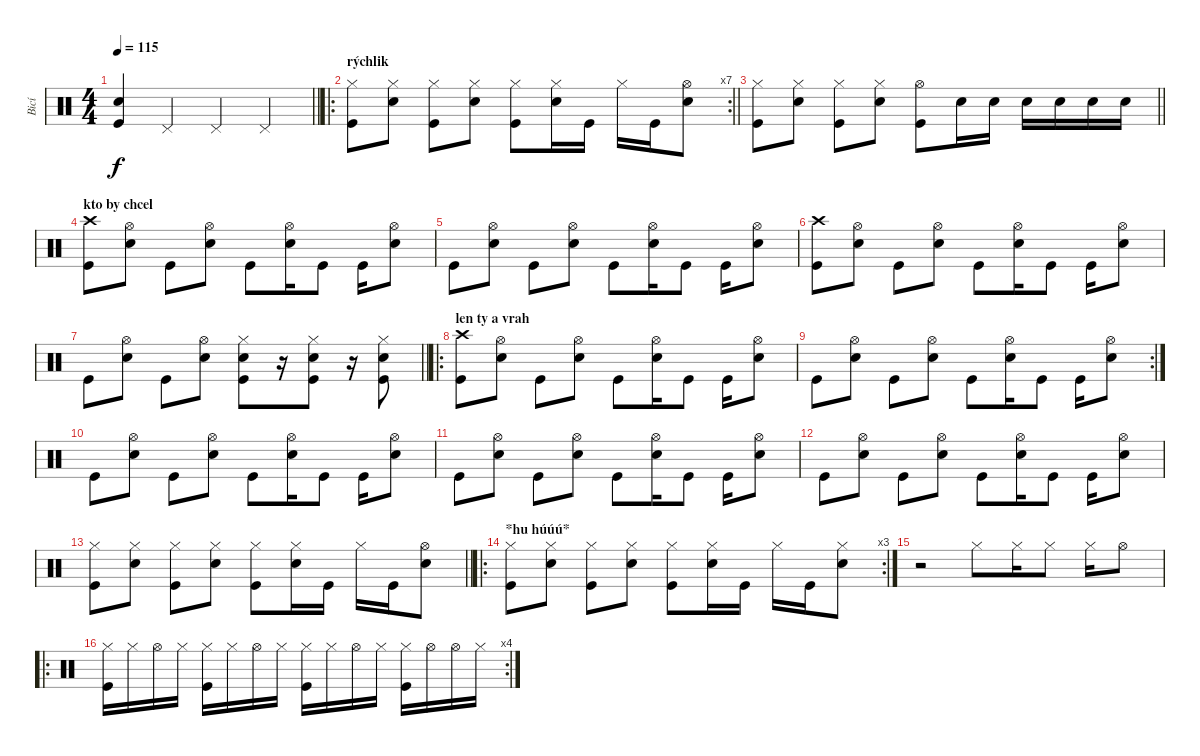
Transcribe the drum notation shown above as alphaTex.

\track ("Bicí" "Bicí") {instrument percussion}
\staff {score}
\articulation defaults
\ts (4 4)
\tempo 115
\clef neutral
\barLineRight lightlight
\ks c
("Snare (hit) 2" "Kick (hit)").4{dy f} "Pedal Hi-Hat (hit)".4 "Pedal Hi-Hat (hit)".4 "Pedal Hi-Hat (hit)".4 |
\ro
\rc 7
\section ("" "rýchlik")
\barLineRight lightlight
("Hi-Hat (closed)" "Kick (hit)").8 ("Hi-Hat (closed)" "Snare (hit) 2").8 ("Hi-Hat (closed)" "Kick (hit)").8 ("Hi-Hat (closed)" "Snare (hit) 2").8 ("Hi-Hat (closed)" "Kick (hit)").8 ("Hi-Hat (closed)" "Snare (hit) 2").16 "Kick (hit)".16 "Hi-Hat (closed)".16 "Kick (hit)".16 ("Hi-Hat (open)" "Snare (hit) 2").8 |
\barLineRight lightlight
("Hi-Hat (closed)" "Kick (hit)").8 ("Hi-Hat (closed)" "Snare (hit) 2").8 ("Hi-Hat (closed)" "Kick (hit)").8 ("Hi-Hat (closed)" "Snare (hit) 2").8 ("Hi-Hat (open)" "Kick (hit)").8 "Snare (hit) 2".16 "Snare (hit) 2".16 "Snare (hit) 2".16 "Snare (hit) 2".16 "Snare (hit) 2".16 "Snare (hit) 2".16 |
\section ("" "kto by chcel")
("Crash high (hit)" "Kick (hit)").8 ("Hi-Hat (open)" "Snare (hit) 2").8 "Kick (hit)".8 ("Hi-Hat (open)" "Snare (hit) 2").8 "Kick (hit)".8 ("Hi-Hat (open)" "Snare (hit) 2").16 "Kick (hit)".8 "Kick (hit)".16 ("Hi-Hat (open)" "Snare (hit) 2").8 |
"Kick (hit)".8 ("Hi-Hat (open)" "Snare (hit) 2").8 "Kick (hit)".8 ("Hi-Hat (open)" "Snare (hit) 2").8 "Kick (hit)".8 ("Hi-Hat (open)" "Snare (hit) 2").16 "Kick (hit)".8 "Kick (hit)".16 ("Hi-Hat (open)" "Snare (hit) 2").8 |
("Crash high (hit)" "Kick (hit)").8 ("Hi-Hat (open)" "Snare (hit) 2").8 "Kick (hit)".8 ("Hi-Hat (open)" "Snare (hit) 2").8 "Kick (hit)".8 ("Hi-Hat (open)" "Snare (hit) 2").16 "Kick (hit)".8 "Kick (hit)".16 ("Hi-Hat (open)" "Snare (hit) 2").8 |
\barLineRight lightlight "Kick (hit)".8
("Hi-Hat (open)" "Snare (hit) 2").8 "Kick (hit)".8 ("Hi-Hat (open)" "Snare (hit) 2").8 ("Hi-Hat (closed)" "Snare (hit) 2" "Kick (hit)").8 r.16 ("Hi-Hat (closed)" "Snare (hit) 2" "Kick (hit)").8 r.16 ("Hi-Hat (closed)" "Snare (hit) 2" "Kick (hit)").8 |
\ro
\section ("" "len ty a vrah")
("Crash high (hit)" "Kick (hit)").8 ("Hi-Hat (open)" "Snare (hit) 2").8 "Kick (hit)".8 ("Hi-Hat (open)" "Snare (hit) 2").8 "Kick (hit)".8 ("Hi-Hat (open)" "Snare (hit) 2").16 "Kick (hit)".8 "Kick (hit)".16 ("Hi-Hat (open)" "Snare (hit) 2").8 |
\rc 2 "Kick (hit)".8
("Hi-Hat (open)" "Snare (hit) 2").8 "Kick (hit)".8 ("Hi-Hat (open)" "Snare (hit) 2").8 "Kick (hit)".8 ("Hi-Hat (open)" "Snare (hit) 2").16 "Kick (hit)".8 "Kick (hit)".16 ("Hi-Hat (open)" "Snare (hit) 2").8 |
"Kick (hit)".8 ("Hi-Hat (open)" "Snare (hit) 2").8 "Kick (hit)".8 ("Hi-Hat (open)" "Snare (hit) 2").8 "Kick (hit)".8 ("Hi-Hat (open)" "Snare (hit) 2").16 "Kick (hit)".8 "Kick (hit)".16 ("Hi-Hat (open)" "Snare (hit) 2").8 |
"Kick (hit)".8 ("Hi-Hat (open)" "Snare (hit) 2").8 "Kick (hit)".8 ("Hi-Hat (open)" "Snare (hit) 2").8 "Kick (hit)".8 ("Hi-Hat (open)" "Snare (hit) 2").16 "Kick (hit)".8 "Kick (hit)".16 ("Hi-Hat (open)" "Snare (hit) 2").8 |
"Kick (hit)".8 ("Hi-Hat (open)" "Snare (hit) 2").8 "Kick (hit)".8 ("Hi-Hat (open)" "Snare (hit) 2").8 "Kick (hit)".8 ("Hi-Hat (open)" "Snare (hit) 2").16 "Kick (hit)".8 "Kick (hit)".16 ("Hi-Hat (open)" "Snare (hit) 2").8 |
\barLineRight lightlight
("Hi-Hat (closed)" "Kick (hit)").8 ("Hi-Hat (closed)" "Snare (hit) 2").8 ("Hi-Hat (closed)" "Kick (hit)").8 ("Hi-Hat (closed)" "Snare (hit) 2").8 ("Hi-Hat (closed)" "Kick (hit)").8 ("Hi-Hat (closed)" "Snare (hit) 2").16 "Kick (hit)".16 "Hi-Hat (closed)".16 "Kick (hit)".16 ("Hi-Hat (open)" "Snare (hit) 2").8 |
\ro
\rc 3
\section ("" "*hu húúú*")
("Hi-Hat (closed)" "Kick (hit)").8 ("Hi-Hat (closed)" "Snare (hit) 2").8 ("Hi-Hat (closed)" "Kick (hit)").8 ("Hi-Hat (closed)" "Snare (hit) 2").8 ("Hi-Hat (closed)" "Kick (hit)").8 ("Hi-Hat (closed)" "Snare (hit) 2").16 "Kick (hit)".16 "Hi-Hat (closed)".16 "Kick (hit)".16 ("Hi-Hat (closed)" "Snare (hit) 2").8 |
r.2 "Hi-Hat (closed)".8 "Hi-Hat (closed)".16 "Hi-Hat (closed)".8 "Hi-Hat (closed)".16 "Hi-Hat (open)".8 |
\ro
\rc 4
("Hi-Hat (closed)" "Kick (hit)").16 "Hi-Hat (closed)".16 "Hi-Hat (open)".16 "Hi-Hat (closed)".16 ("Hi-Hat (closed)" "Kick (hit)").16 "Hi-Hat (closed)".16 "Hi-Hat (open)".16 "Hi-Hat (closed)".16 ("Hi-Hat (closed)" "Kick (hit)").16 "Hi-Hat (closed)".16 "Hi-Hat (open)".16 "Hi-Hat (closed)".16 ("Hi-Hat (closed)" "Kick (hit)").16 "Hi-Hat (open)".16 "Hi-Hat (open)".16 "Hi-Hat (closed)".16
